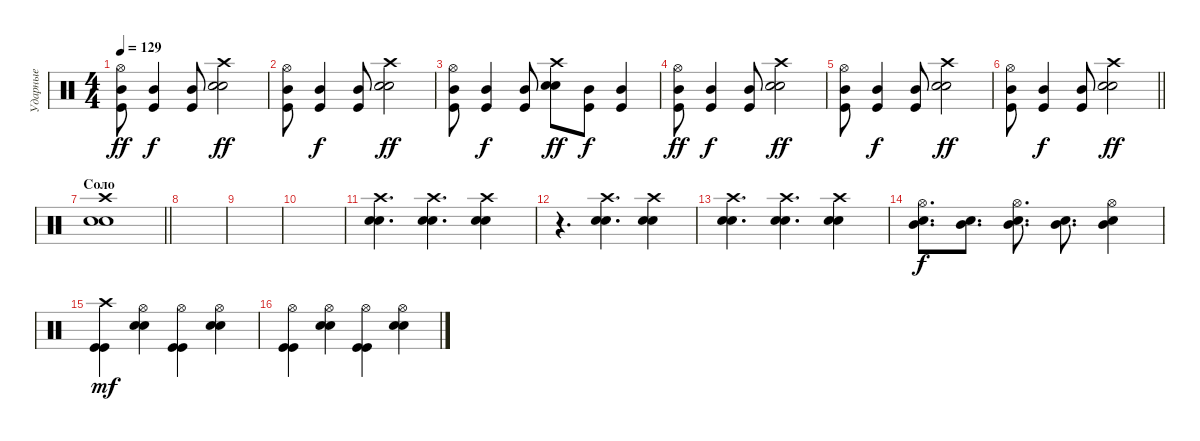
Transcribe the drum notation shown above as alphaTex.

\track ("Ударные" "Ударные") {instrument percussion}
\staff {score}
\articulation defaults
\ts (4 4)
\tempo 129
\clef neutral
\ks c
("Kick (hit)" "Mid Tom (hit)" "Hi-Hat (open)").8{dy ff} ("Kick (hit)" "Mid Tom (hit)").4{dy f} ("Kick (hit)" "Mid Tom (hit)").8 ("Snare (hit) 2" "Snare (hit) 2" "Crash high (hit)").2{dy ff} |
("Kick (hit)" "Mid Tom (hit)" "Hi-Hat (open)").8 ("Kick (hit)" "Mid Tom (hit)").4{dy f} ("Kick (hit)" "Mid Tom (hit)").8 ("Snare (hit) 2" "Snare (hit) 2" "Crash high (hit)").2{dy ff} |
("Kick (hit)" "Mid Tom (hit)" "Hi-Hat (open)").8 ("Kick (hit)" "Mid Tom (hit)").4{dy f} ("Kick (hit)" "Mid Tom (hit)").8 ("Snare (hit) 2" "Snare (hit) 2" "Crash high (hit)").8{dy ff} ("Kick (hit)" "Mid Tom (hit)").8{dy f} ("Kick (hit)" "Mid Tom (hit)").4 |
("Kick (hit)" "Mid Tom (hit)" "Hi-Hat (open)").8{dy ff} ("Kick (hit)" "Mid Tom (hit)").4{dy f} ("Kick (hit)" "Mid Tom (hit)").8 ("Snare (hit) 2" "Snare (hit) 2" "Crash high (hit)").2{dy ff} |
("Kick (hit)" "Mid Tom (hit)" "Hi-Hat (open)").8 ("Kick (hit)" "Mid Tom (hit)").4{dy f} ("Kick (hit)" "Mid Tom (hit)").8 ("Snare (hit) 2" "Snare (hit) 2" "Crash high (hit)").2{dy ff} |
\barLineRight lightlight
("Kick (hit)" "Mid Tom (hit)" "Hi-Hat (open)").8 ("Kick (hit)" "Mid Tom (hit)").4{dy f} ("Kick (hit)" "Mid Tom (hit)").8 ("Snare (hit) 2" "Snare (hit) 2" "Crash high (hit)").2{dy ff} |
\section ("" "Соло")
\barLineRight lightlight
("Snare (hit) 2" "Snare (hit) 2" "Crash high (hit)").1 |
\section ("" "")
|
|
|
("Snare (hit) 2" "Snare (hit) 2" "Crash high (hit)").4{d} ("Snare (hit) 2" "Snare (hit) 2" "Crash high (hit)").4{d} ("Snare (hit) 2" "Snare (hit) 2" "Crash high (hit)").4 |
r.4{d} ("Snare (hit) 2" "Snare (hit) 2" "Crash high (hit)").4{d} ("Snare (hit) 2" "Snare (hit) 2" "Crash high (hit)").4 |
("Snare (hit) 2" "Snare (hit) 2" "Crash high (hit)").4{d} ("Snare (hit) 2" "Snare (hit) 2" "Crash high (hit)").4{d} ("Snare (hit) 2" "Snare (hit) 2" "Crash high (hit)").4 |
("Hi-Hat (open)" "Snare (hit) 2" "Mid Tom (hit)").8{d dy f} ("Snare (hit) 2" "Mid Tom (hit)").8{d} ("Hi-Hat (open)" "Snare (hit) 2" "Mid Tom (hit)").8{d} ("Snare (hit) 2" "Mid Tom (hit)").8{d} ("Hi-Hat (open)" "Snare (hit) 2" "Mid Tom (hit)").4 |
("Crash high (hit)" "Kick (hit)" "Kick (hit)").4{dy mf} ("Hi-Hat (open)" "Snare (hit) 2" "Snare (hit) 2").4 ("Hi-Hat (open)" "Kick (hit)" "Kick (hit)").4 ("Hi-Hat (open)" "Snare (hit) 2" "Snare (hit) 2").4 |
("Hi-Hat (open)" "Kick (hit)" "Kick (hit)").4 ("Hi-Hat (open)" "Snare (hit) 2" "Snare (hit) 2").4 ("Hi-Hat (open)" "Kick (hit)" "Kick (hit)").4 ("Hi-Hat (open)" "Snare (hit) 2" "Snare (hit) 2").4
